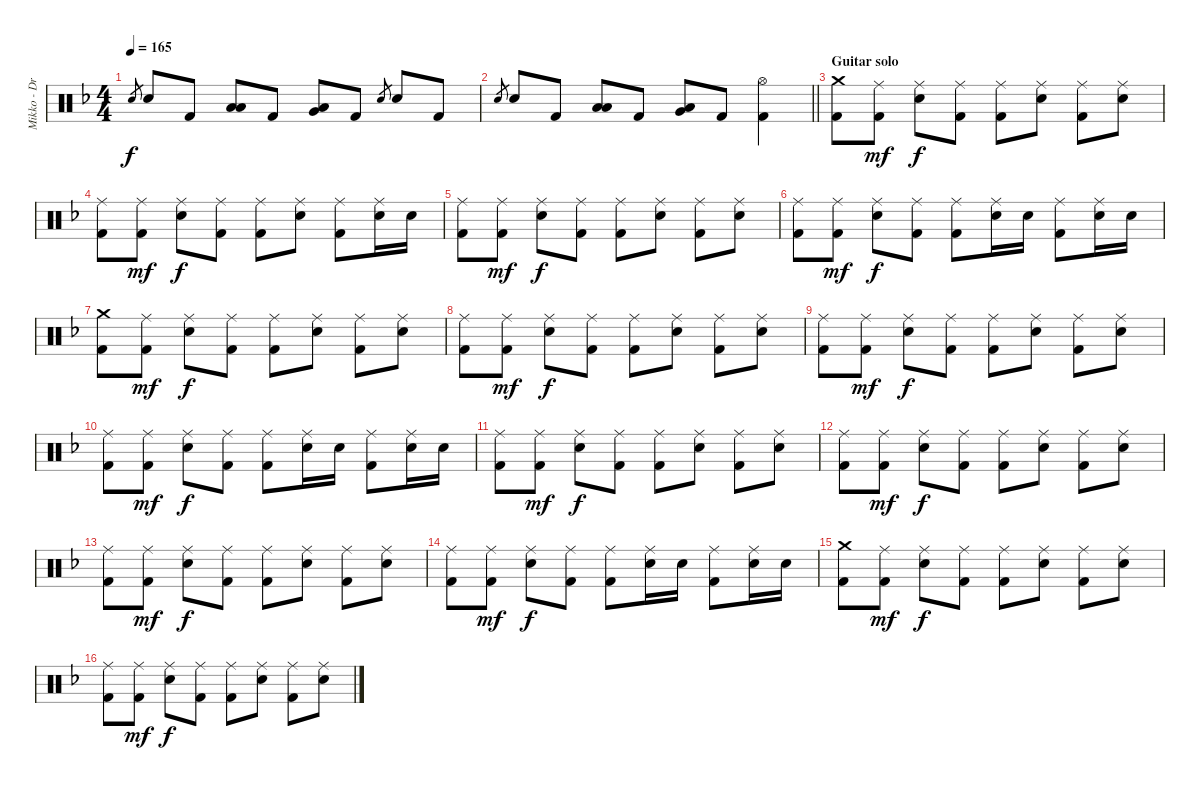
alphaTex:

\track ("Mikko - Drums" "Mikko - Dr") {instrument percussion}
\staff {score}
\articulation defaults
\ts (4 4)
\tempo 165
\clef neutral
\ks dminor "Snare (hit) 2".8{gr dy f} "Snare (hit) 2".8 "Kick (hit) 2".8
("Low Tom (hit)" "Low Tom (hit)").8 "Kick (hit) 2".8 ("Low Tom (hit)" "Very Low Tom (hit)").8 "Kick (hit) 2".8 "Snare (hit) 2".8{gr} "Snare (hit) 2".8 "Kick (hit) 2".8 |
\barLineRight lightlight "Snare (hit) 2".8{gr} "Snare (hit) 2".8 "Kick (hit) 2".8
("Low Tom (hit)" "Low Tom (hit)").8 "Kick (hit) 2".8 ("Low Tom (hit)" "Very Low Tom (hit)").8 "Kick (hit) 2".8 ("Hi-Hat (open)" "Kick (hit) 2").4 |
\section ("" "Guitar solo")
("Crash medium (hit)" "Kick (hit) 2").8 ("Ride (middle)" "Kick (hit) 2").8{dy mf} ("Ride (middle)" "Snare (hit) 2").8{dy f} ("Ride (middle)" "Kick (hit) 2").8 ("Ride (middle)" "Kick (hit) 2").8 ("Ride (middle)" "Snare (hit) 2").8 ("Ride (middle)" "Kick (hit) 2").8 ("Ride (middle)" "Snare (hit) 2").8 |
("Ride (middle)" "Kick (hit) 2").8 ("Ride (middle)" "Kick (hit) 2").8{dy mf} ("Ride (middle)" "Snare (hit) 2").8{dy f} ("Ride (middle)" "Kick (hit) 2").8 ("Ride (middle)" "Kick (hit) 2").8 ("Ride (middle)" "Snare (hit) 2").8 ("Ride (middle)" "Kick (hit) 2").8 ("Ride (middle)" "Snare (hit) 2").16 "Snare (hit) 2".16 |
("Ride (middle)" "Kick (hit) 2").8 ("Ride (middle)" "Kick (hit) 2").8{dy mf} ("Ride (middle)" "Snare (hit) 2").8{dy f} ("Ride (middle)" "Kick (hit) 2").8 ("Ride (middle)" "Kick (hit) 2").8 ("Ride (middle)" "Snare (hit) 2").8 ("Ride (middle)" "Kick (hit) 2").8 ("Ride (middle)" "Snare (hit) 2").8 |
("Ride (middle)" "Kick (hit) 2").8 ("Ride (middle)" "Kick (hit) 2").8{dy mf} ("Ride (middle)" "Snare (hit) 2").8{dy f} ("Ride (middle)" "Kick (hit) 2").8 ("Ride (middle)" "Kick (hit) 2").8 ("Ride (middle)" "Snare (hit) 2").16 "Snare (hit) 2".16 ("Ride (middle)" "Kick (hit) 2").8 ("Ride (middle)" "Snare (hit) 2").16 "Snare (hit) 2".16 |
("Crash medium (hit)" "Kick (hit) 2").8 ("Ride (middle)" "Kick (hit) 2").8{dy mf} ("Ride (middle)" "Snare (hit) 2").8{dy f} ("Ride (middle)" "Kick (hit) 2").8 ("Ride (middle)" "Kick (hit) 2").8 ("Ride (middle)" "Snare (hit) 2").8 ("Ride (middle)" "Kick (hit) 2").8 ("Ride (middle)" "Snare (hit) 2").8 |
("Ride (middle)" "Kick (hit) 2").8 ("Ride (middle)" "Kick (hit) 2").8{dy mf} ("Ride (middle)" "Snare (hit) 2").8{dy f} ("Ride (middle)" "Kick (hit) 2").8 ("Ride (middle)" "Kick (hit) 2").8 ("Ride (middle)" "Snare (hit) 2").8 ("Ride (middle)" "Kick (hit) 2").8 ("Ride (middle)" "Snare (hit) 2").8 |
("Ride (middle)" "Kick (hit) 2").8 ("Ride (middle)" "Kick (hit) 2").8{dy mf} ("Ride (middle)" "Snare (hit) 2").8{dy f} ("Ride (middle)" "Kick (hit) 2").8 ("Ride (middle)" "Kick (hit) 2").8 ("Ride (middle)" "Snare (hit) 2").8 ("Ride (middle)" "Kick (hit) 2").8 ("Ride (middle)" "Snare (hit) 2").8 |
("Ride (middle)" "Kick (hit) 2").8 ("Ride (middle)" "Kick (hit) 2").8{dy mf} ("Ride (middle)" "Snare (hit) 2").8{dy f} ("Ride (middle)" "Kick (hit) 2").8 ("Ride (middle)" "Kick (hit) 2").8 ("Ride (middle)" "Snare (hit) 2").16 "Snare (hit) 2".16 ("Ride (middle)" "Kick (hit) 2").8 ("Ride (middle)" "Snare (hit) 2").16 "Snare (hit) 2".16 |
("Ride (middle)" "Kick (hit) 2").8 ("Ride (middle)" "Kick (hit) 2").8{dy mf} ("Ride (middle)" "Snare (hit) 2").8{dy f} ("Ride (middle)" "Kick (hit) 2").8 ("Ride (middle)" "Kick (hit) 2").8 ("Ride (middle)" "Snare (hit) 2").8 ("Ride (middle)" "Kick (hit) 2").8 ("Ride (middle)" "Snare (hit) 2").8 |
("Ride (middle)" "Kick (hit) 2").8 ("Ride (middle)" "Kick (hit) 2").8{dy mf} ("Ride (middle)" "Snare (hit) 2").8{dy f} ("Ride (middle)" "Kick (hit) 2").8 ("Ride (middle)" "Kick (hit) 2").8 ("Ride (middle)" "Snare (hit) 2").8 ("Ride (middle)" "Kick (hit) 2").8 ("Ride (middle)" "Snare (hit) 2").8 |
("Ride (middle)" "Kick (hit) 2").8 ("Ride (middle)" "Kick (hit) 2").8{dy mf} ("Ride (middle)" "Snare (hit) 2").8{dy f} ("Ride (middle)" "Kick (hit) 2").8 ("Ride (middle)" "Kick (hit) 2").8 ("Ride (middle)" "Snare (hit) 2").8 ("Ride (middle)" "Kick (hit) 2").8 ("Ride (middle)" "Snare (hit) 2").8 |
("Ride (middle)" "Kick (hit) 2").8 ("Ride (middle)" "Kick (hit) 2").8{dy mf} ("Ride (middle)" "Snare (hit) 2").8{dy f} ("Ride (middle)" "Kick (hit) 2").8 ("Ride (middle)" "Kick (hit) 2").8 ("Ride (middle)" "Snare (hit) 2").16 "Snare (hit) 2".16 ("Ride (middle)" "Kick (hit) 2").8 ("Ride (middle)" "Snare (hit) 2").16 "Snare (hit) 2".16 |
("Crash medium (hit)" "Kick (hit) 2").8 ("Ride (middle)" "Kick (hit) 2").8{dy mf} ("Ride (middle)" "Snare (hit) 2").8{dy f} ("Ride (middle)" "Kick (hit) 2").8 ("Ride (middle)" "Kick (hit) 2").8 ("Ride (middle)" "Snare (hit) 2").8 ("Ride (middle)" "Kick (hit) 2").8 ("Ride (middle)" "Snare (hit) 2").8 |
("Ride (middle)" "Kick (hit) 2").8 ("Ride (middle)" "Kick (hit) 2").8{dy mf} ("Ride (middle)" "Snare (hit) 2").8{dy f} ("Ride (middle)" "Kick (hit) 2").8 ("Ride (middle)" "Kick (hit) 2").8 ("Ride (middle)" "Snare (hit) 2").8 ("Ride (middle)" "Kick (hit) 2").8 ("Ride (middle)" "Snare (hit) 2").8
